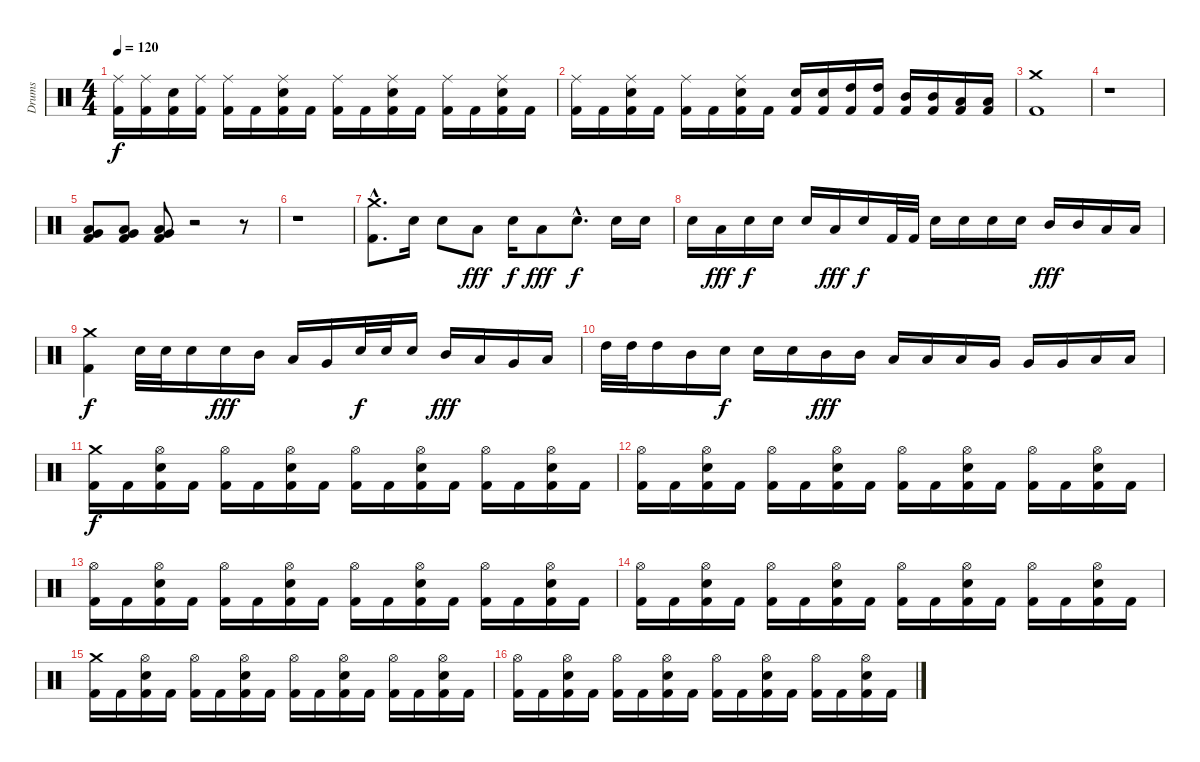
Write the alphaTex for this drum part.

\track ("Drums" "Drums") {instrument percussion}
\staff {score}
\articulation defaults
\ts (4 4)
\tempo 120
\clef neutral
\ks c
("Kick (hit) 2" "Ride (middle)").16{dy f} ("Kick (hit) 2" "Ride (middle)").16 ("Kick (hit) 2" "Electric Snare (hit)").16 ("Kick (hit) 2" "Ride (middle)").16 ("Kick (hit) 2" "Ride (middle)").16 "Kick (hit) 2".16 ("Kick (hit) 2" "Electric Snare (hit)" "Ride (middle)").16 "Kick (hit) 2".16 ("Kick (hit) 2" "Ride (middle)").16 "Kick (hit) 2".16 ("Kick (hit) 2" "Electric Snare (hit)" "Ride (middle)").16 "Kick (hit) 2".16 ("Kick (hit) 2" "Ride (middle)").16 "Kick (hit) 2".16 ("Kick (hit) 2" "Electric Snare (hit)" "Ride (middle)").16 "Kick (hit) 2".16 |
("Kick (hit) 2" "Ride (middle)").16 "Kick (hit) 2".16 ("Kick (hit) 2" "Electric Snare (hit)" "Ride (middle)").16 "Kick (hit) 2".16 ("Kick (hit) 2" "Ride (middle)").16 "Kick (hit) 2".16 ("Kick (hit) 2" "Electric Snare (hit)" "Ride (middle)").16 "Kick (hit) 2".16 ("Kick (hit) 2" "Electric Snare (hit)").16 ("Kick (hit) 2" "Electric Snare (hit)").16 ("Kick (hit) 2" "High Tom (hit)").16 ("Kick (hit) 2" "High Tom (hit)").16 ("Kick (hit) 2" "Mid Tom (hit)").16 ("Kick (hit) 2" "Mid Tom (hit)").16 ("Kick (hit) 2" "Low Tom (hit)").16 ("Kick (hit) 2" "Low Tom (hit)").16 |
("Kick (hit) 2" "Crash medium (hit)").1 |
r.1 |
("Kick (hit) 2" "Low Tom (hit)" "Very Low Tom (hit)").8 ("Kick (hit) 2" "Low Tom (hit)" "Very Low Tom (hit)").8 ("Kick (hit) 2" "Low Tom (hit)" "Very Low Tom (hit)").8 r.2 r.8 |
r.1 |
("Kick (hit) 2"{hac} "Crash medium (hit)"{hac}).8{d} "Electric Snare (hit)".16 "Electric Snare (hit)".8 "Low Tom (hit)".8{dy fff} "Electric Snare (hit)".16{dy f} "Low Tom (hit)".8{dy fff} "Electric Snare (hit)"{hac}.8{d dy f} "Electric Snare (hit)".16 "Electric Snare (hit)".16 |
"Electric Snare (hit)".16 "Low Tom (hit)".16{dy fff} "Electric Snare (hit)".16{dy f} "Electric Snare (hit)".16 "Electric Snare (hit)".16 "Low Tom (hit)".16{dy fff} "Electric Snare (hit)".16{dy f} "Kick (hit) 2".32 "Kick (hit) 2".32 "Electric Snare (hit)".16 "Electric Snare (hit)".16 "Electric Snare (hit)".16 "Electric Snare (hit)".16 "Mid Tom (hit)".16{dy fff} "Mid Tom (hit)".16 "Low Tom (hit)".16 "Low Tom (hit)".16 |
("Kick (hit) 2" "Crash medium (hit)").4{dy f} "Electric Snare (hit)".32 "Electric Snare (hit)".32 "Electric Snare (hit)".16 "Electric Snare (hit)".16{dy fff} "Mid Tom (hit)".16 "Low Tom (hit)".16 "Very Low Tom (hit)".16 "Electric Snare (hit)".32{dy f} "Electric Snare (hit)".32 "Electric Snare (hit)".16 "Mid Tom (hit)".16{dy fff} "Low Tom (hit)".16 "Very Low Tom (hit)".16 "Low Floor Tom (hit)".16 |
"High Tom (hit)".32 "High Tom (hit)".32 "High Tom (hit)".16 "Mid Tom (hit)".16 "Electric Snare (hit)".16{dy f} "Electric Snare (hit)".16 "Electric Snare (hit)".16 "Mid Tom (hit)".16{dy fff} "Mid Tom (hit)".16 "Low Tom (hit)".16 "Low Tom (hit)".16 "Low Tom (hit)".16 "Very Low Tom (hit)".16 "Very Low Tom (hit)".16 "Very Low Tom (hit)".16 "Low Floor Tom (hit)".16 "Low Floor Tom (hit)".16 |
("Kick (hit) 2" "Crash medium (hit)").16{dy f} "Kick (hit) 2".16 ("Kick (hit) 2" "Electric Snare (hit)" "Hi-Hat (open)").16 "Kick (hit) 2".16 ("Kick (hit) 2" "Hi-Hat (open)").16 "Kick (hit) 2".16 ("Kick (hit) 2" "Electric Snare (hit)" "Hi-Hat (open)").16 "Kick (hit) 2".16 ("Kick (hit) 2" "Hi-Hat (open)").16 "Kick (hit) 2".16 ("Kick (hit) 2" "Electric Snare (hit)" "Hi-Hat (open)").16 "Kick (hit) 2".16 ("Kick (hit) 2" "Hi-Hat (open)").16 "Kick (hit) 2".16 ("Kick (hit) 2" "Electric Snare (hit)" "Hi-Hat (open)").16 "Kick (hit) 2".16 |
("Kick (hit) 2" "Hi-Hat (open)").16 "Kick (hit) 2".16 ("Kick (hit) 2" "Electric Snare (hit)" "Hi-Hat (open)").16 "Kick (hit) 2".16 ("Kick (hit) 2" "Hi-Hat (open)").16 "Kick (hit) 2".16 ("Kick (hit) 2" "Electric Snare (hit)" "Hi-Hat (open)").16 "Kick (hit) 2".16 ("Kick (hit) 2" "Hi-Hat (open)").16 "Kick (hit) 2".16 ("Kick (hit) 2" "Electric Snare (hit)" "Hi-Hat (open)").16 "Kick (hit) 2".16 ("Kick (hit) 2" "Hi-Hat (open)").16 "Kick (hit) 2".16 ("Kick (hit) 2" "Electric Snare (hit)" "Hi-Hat (open)").16 "Kick (hit) 2".16 |
("Kick (hit) 2" "Hi-Hat (open)").16 "Kick (hit) 2".16 ("Kick (hit) 2" "Electric Snare (hit)" "Hi-Hat (open)").16 "Kick (hit) 2".16 ("Kick (hit) 2" "Hi-Hat (open)").16 "Kick (hit) 2".16 ("Kick (hit) 2" "Electric Snare (hit)" "Hi-Hat (open)").16 "Kick (hit) 2".16 ("Kick (hit) 2" "Hi-Hat (open)").16 "Kick (hit) 2".16 ("Kick (hit) 2" "Electric Snare (hit)" "Hi-Hat (open)").16 "Kick (hit) 2".16 ("Kick (hit) 2" "Hi-Hat (open)").16 "Kick (hit) 2".16 ("Kick (hit) 2" "Electric Snare (hit)" "Hi-Hat (open)").16 "Kick (hit) 2".16 |
("Kick (hit) 2" "Hi-Hat (open)").16 "Kick (hit) 2".16 ("Kick (hit) 2" "Electric Snare (hit)" "Hi-Hat (open)").16 "Kick (hit) 2".16 ("Kick (hit) 2" "Hi-Hat (open)").16 "Kick (hit) 2".16 ("Kick (hit) 2" "Electric Snare (hit)" "Hi-Hat (open)").16 "Kick (hit) 2".16 ("Kick (hit) 2" "Hi-Hat (open)").16 "Kick (hit) 2".16 ("Kick (hit) 2" "Electric Snare (hit)" "Hi-Hat (open)").16 "Kick (hit) 2".16 ("Kick (hit) 2" "Hi-Hat (open)").16 "Kick (hit) 2".16 ("Kick (hit) 2" "Electric Snare (hit)" "Hi-Hat (open)").16 "Kick (hit) 2".16 |
("Kick (hit) 2" "Crash medium (hit)").16 "Kick (hit) 2".16 ("Kick (hit) 2" "Electric Snare (hit)" "Hi-Hat (open)").16 "Kick (hit) 2".16 ("Kick (hit) 2" "Hi-Hat (open)").16 "Kick (hit) 2".16 ("Kick (hit) 2" "Electric Snare (hit)" "Hi-Hat (open)").16 "Kick (hit) 2".16 ("Kick (hit) 2" "Hi-Hat (open)").16 "Kick (hit) 2".16 ("Kick (hit) 2" "Electric Snare (hit)" "Hi-Hat (open)").16 "Kick (hit) 2".16 ("Kick (hit) 2" "Hi-Hat (open)").16 "Kick (hit) 2".16 ("Kick (hit) 2" "Electric Snare (hit)" "Hi-Hat (open)").16 "Kick (hit) 2".16 |
("Kick (hit) 2" "Hi-Hat (open)").16 "Kick (hit) 2".16 ("Kick (hit) 2" "Electric Snare (hit)" "Hi-Hat (open)").16 "Kick (hit) 2".16 ("Kick (hit) 2" "Hi-Hat (open)").16 "Kick (hit) 2".16 ("Kick (hit) 2" "Electric Snare (hit)" "Hi-Hat (open)").16 "Kick (hit) 2".16 ("Kick (hit) 2" "Hi-Hat (open)").16 "Kick (hit) 2".16 ("Kick (hit) 2" "Electric Snare (hit)" "Hi-Hat (open)").16 "Kick (hit) 2".16 ("Kick (hit) 2" "Hi-Hat (open)").16 "Kick (hit) 2".16 ("Kick (hit) 2" "Electric Snare (hit)" "Hi-Hat (open)").16 "Kick (hit) 2".16
